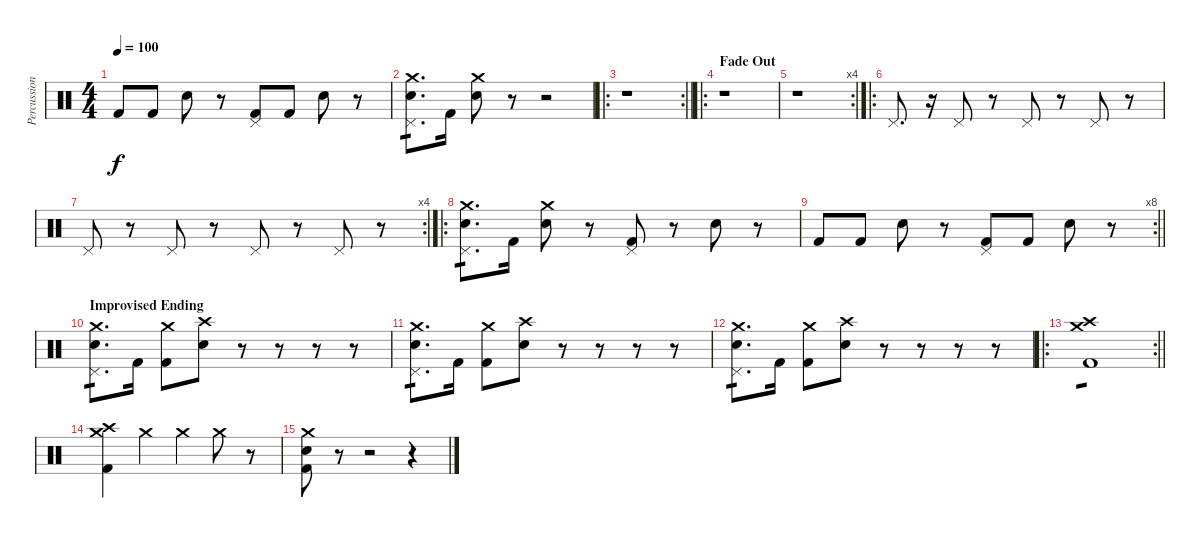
\track ("Percussion" "Percussion") {instrument percussion}
\staff {score}
\articulation defaults
\ts (4 4)
\tempo 100
\clef neutral
\ks c "Kick (hit) 2".8{dy f} "Kick (hit) 2".8 "Snare (hit) 2".8
r.8 ("Kick (hit) 2" "Pedal Hi-Hat (hit)").8 "Kick (hit) 2".8 "Snare (hit) 2".8 r.8 |
("Snare (hit) 2" "Crash medium (hit)" "Pedal Hi-Hat (hit)").8{d tp 1} "Kick (hit) 2".16 ("Snare (hit) 2" "Crash medium (hit)").8 r.8 r.2 |
\ro
\rc 2
\barLineRight lightlight
r.1 |
\ro
\section ("" "Fade Out")
r.1 |
\rc 4
r.1 |
\ro "Pedal Hi-Hat (hit)".8{d}
r.16 "Pedal Hi-Hat (hit)".8 r.8 "Pedal Hi-Hat (hit)".8 r.8 "Pedal Hi-Hat (hit)".8 r.8 |
\rc 4 "Pedal Hi-Hat (hit)".8
r.8 "Pedal Hi-Hat (hit)".8 r.8 "Pedal Hi-Hat (hit)".8 r.8 "Pedal Hi-Hat (hit)".8 r.8 |
\ro
("Snare (hit) 2" "Crash medium (hit)" "Pedal Hi-Hat (hit)").8{d tp 1} "Kick (hit) 2".16 ("Snare (hit) 2" "Crash medium (hit)").8 r.8 ("Kick (hit) 2" "Pedal Hi-Hat (hit)").8 r.8 "Snare (hit) 2".8 r.8 |
\rc 8
\barLineRight lightlight "Kick (hit) 2".8 "Kick (hit) 2".8 "Snare (hit) 2".8
r.8 ("Kick (hit) 2" "Pedal Hi-Hat (hit)").8 "Kick (hit) 2".8 "Snare (hit) 2".8 r.8 |
\section ("" "Improvised Ending")
("Snare (hit) 2" "Crash medium (hit)" "Pedal Hi-Hat (hit)").8{d tp 1} "Kick (hit) 2".16 ("Kick (hit) 2" "Crash medium (hit)").8 ("Snare (hit) 2" "Crash high (hit)").8 r.8 r.8 r.8 r.8 |
("Snare (hit) 2" "Crash medium (hit)" "Pedal Hi-Hat (hit)").8{d tp 1} "Kick (hit) 2".16 ("Kick (hit) 2" "Crash medium (hit)").8 ("Snare (hit) 2" "Crash high (hit)").8 r.8 r.8 r.8 r.8 |
("Snare (hit) 2" "Crash medium (hit)" "Pedal Hi-Hat (hit)").8{d tp 1} "Kick (hit) 2".16 ("Kick (hit) 2" "Crash medium (hit)").8 ("Snare (hit) 2" "Crash high (hit)").8 r.8 r.8 r.8 r.8 |
\ro
\rc 2
\barLineRight lightlight
("Kick (hit) 2" "Crash medium (hit)" "Crash high (hit)").1{tp 1} |
("Kick (hit) 2" "Crash medium (hit)" "Crash high (hit)").4 "Crash medium (hit)".4 "Crash medium (hit)".4 "Crash medium (hit)".8 r.8 |
("Kick (hit) 2" "Crash medium (hit)" "Snare (hit) 2").8 r.8 r.2 r.4
